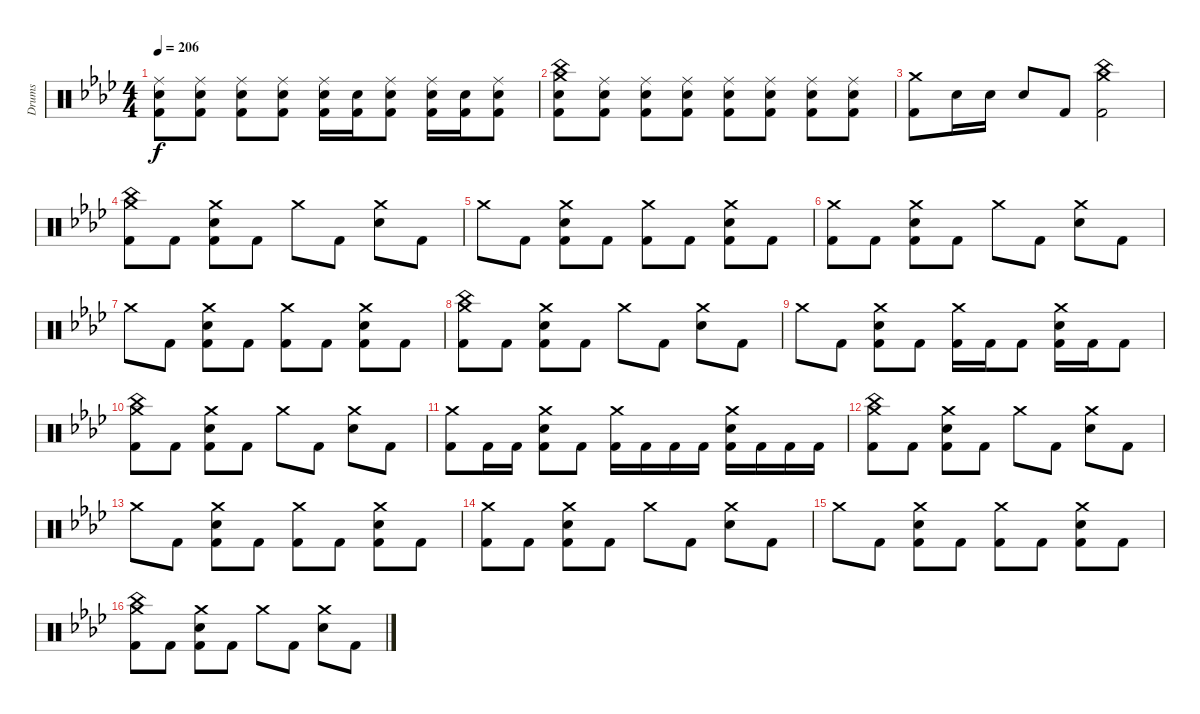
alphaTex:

\track ("Drums" "Drums") {instrument percussion}
\staff {score}
\articulation defaults
\ts (4 4)
\tempo 206
\clef neutral
\ks fminor
("Ride (middle)" "Electric Snare (hit)" "Kick (hit) 2").8{dy f} ("Ride (middle)" "Electric Snare (hit)" "Kick (hit) 2").8 ("Ride (middle)" "Electric Snare (hit)" "Kick (hit) 2").8 ("Ride (middle)" "Electric Snare (hit)" "Kick (hit) 2").8 ("Ride (middle)" "Electric Snare (hit)" "Kick (hit) 2").16 ("Electric Snare (hit)" "Kick (hit) 2").16 ("Ride (middle)" "Electric Snare (hit)" "Kick (hit) 2").8 ("Ride (middle)" "Electric Snare (hit)" "Kick (hit) 2").16 ("Electric Snare (hit)" "Kick (hit) 2").16 ("Ride (middle)" "Electric Snare (hit)" "Kick (hit) 2").8 |
("Crash medium (hit)" "China (hit)" "Electric Snare (hit)" "Kick (hit) 2").8 ("Ride (middle)" "Electric Snare (hit)" "Kick (hit) 2").8 ("Ride (middle)" "Electric Snare (hit)" "Kick (hit) 2").8 ("Ride (middle)" "Electric Snare (hit)" "Kick (hit) 2").8 ("Ride (middle)" "Electric Snare (hit)" "Kick (hit) 2").8 ("Ride (middle)" "Electric Snare (hit)" "Kick (hit) 2").8 ("Ride (middle)" "Electric Snare (hit)" "Kick (hit) 2").8 ("Ride (middle)" "Electric Snare (hit)" "Kick (hit) 2").8 |
("Crash medium (hit)" "Kick (hit) 2").8 "Electric Snare (hit)".16 "Electric Snare (hit)".16 "Electric Snare (hit)".8 "Kick (hit) 2".8 ("Crash medium (hit)" "China (hit)" "Kick (hit) 2").2 |
("Crash medium (hit)" "China (hit)" "Kick (hit) 2").8 "Kick (hit) 2".8 ("Crash medium (hit)" "Electric Snare (hit)" "Kick (hit) 2").8 "Kick (hit) 2".8 "Crash medium (hit)".8 "Kick (hit) 2".8 ("Crash medium (hit)" "Electric Snare (hit)").8 "Kick (hit) 2".8 |
"Crash medium (hit)".8 "Kick (hit) 2".8 ("Crash medium (hit)" "Electric Snare (hit)" "Kick (hit) 2").8 "Kick (hit) 2".8 ("Crash medium (hit)" "Kick (hit) 2").8 "Kick (hit) 2".8 ("Crash medium (hit)" "Electric Snare (hit)" "Kick (hit) 2").8 "Kick (hit) 2".8 |
("Crash medium (hit)" "Kick (hit) 2").8 "Kick (hit) 2".8 ("Crash medium (hit)" "Electric Snare (hit)" "Kick (hit) 2").8 "Kick (hit) 2".8 "Crash medium (hit)".8 "Kick (hit) 2".8 ("Crash medium (hit)" "Electric Snare (hit)").8 "Kick (hit) 2".8 |
"Crash medium (hit)".8 "Kick (hit) 2".8 ("Crash medium (hit)" "Electric Snare (hit)" "Kick (hit) 2").8 "Kick (hit) 2".8 ("Crash medium (hit)" "Kick (hit) 2").8 "Kick (hit) 2".8 ("Crash medium (hit)" "Electric Snare (hit)" "Kick (hit) 2").8 "Kick (hit) 2".8 |
("Crash medium (hit)" "China (hit)" "Kick (hit) 2").8 "Kick (hit) 2".8 ("Crash medium (hit)" "Electric Snare (hit)" "Kick (hit) 2").8 "Kick (hit) 2".8 "Crash medium (hit)".8 "Kick (hit) 2".8 ("Crash medium (hit)" "Electric Snare (hit)").8 "Kick (hit) 2".8 |
"Crash medium (hit)".8 "Kick (hit) 2".8 ("Crash medium (hit)" "Electric Snare (hit)" "Kick (hit) 2").8 "Kick (hit) 2".8 ("Crash medium (hit)" "Kick (hit) 2").16 "Kick (hit) 2".16 "Kick (hit) 2".8 ("Crash medium (hit)" "Electric Snare (hit)" "Kick (hit) 2").16 "Kick (hit) 2".16 "Kick (hit) 2".8 |
("Crash medium (hit)" "China (hit)" "Kick (hit) 2").8 "Kick (hit) 2".8 ("Crash medium (hit)" "Electric Snare (hit)" "Kick (hit) 2").8 "Kick (hit) 2".8 "Crash medium (hit)".8 "Kick (hit) 2".8 ("Crash medium (hit)" "Electric Snare (hit)").8 "Kick (hit) 2".8 |
("Crash medium (hit)" "Kick (hit) 2").8 "Kick (hit) 2".16 "Kick (hit) 2".16 ("Crash medium (hit)" "Electric Snare (hit)" "Kick (hit) 2").8 "Kick (hit) 2".8 ("Crash medium (hit)" "Kick (hit) 2").16 "Kick (hit) 2".16 "Kick (hit) 2".16 "Kick (hit) 2".16 ("Crash medium (hit)" "Electric Snare (hit)" "Kick (hit) 2").16 "Kick (hit) 2".16 "Kick (hit) 2".16 "Kick (hit) 2".16 |
("Crash medium (hit)" "China (hit)" "Kick (hit) 2").8 "Kick (hit) 2".8 ("Crash medium (hit)" "Electric Snare (hit)" "Kick (hit) 2").8 "Kick (hit) 2".8 "Crash medium (hit)".8 "Kick (hit) 2".8 ("Crash medium (hit)" "Electric Snare (hit)").8 "Kick (hit) 2".8 |
"Crash medium (hit)".8 "Kick (hit) 2".8 ("Crash medium (hit)" "Electric Snare (hit)" "Kick (hit) 2").8 "Kick (hit) 2".8 ("Crash medium (hit)" "Kick (hit) 2").8 "Kick (hit) 2".8 ("Crash medium (hit)" "Electric Snare (hit)" "Kick (hit) 2").8 "Kick (hit) 2".8 |
("Crash medium (hit)" "Kick (hit) 2").8 "Kick (hit) 2".8 ("Crash medium (hit)" "Electric Snare (hit)" "Kick (hit) 2").8 "Kick (hit) 2".8 "Crash medium (hit)".8 "Kick (hit) 2".8 ("Crash medium (hit)" "Electric Snare (hit)").8 "Kick (hit) 2".8 |
"Crash medium (hit)".8 "Kick (hit) 2".8 ("Crash medium (hit)" "Electric Snare (hit)" "Kick (hit) 2").8 "Kick (hit) 2".8 ("Crash medium (hit)" "Kick (hit) 2").8 "Kick (hit) 2".8 ("Crash medium (hit)" "Electric Snare (hit)" "Kick (hit) 2").8 "Kick (hit) 2".8 |
("Crash medium (hit)" "China (hit)" "Kick (hit) 2").8 "Kick (hit) 2".8 ("Crash medium (hit)" "Electric Snare (hit)" "Kick (hit) 2").8 "Kick (hit) 2".8 "Crash medium (hit)".8 "Kick (hit) 2".8 ("Crash medium (hit)" "Electric Snare (hit)").8 "Kick (hit) 2".8
